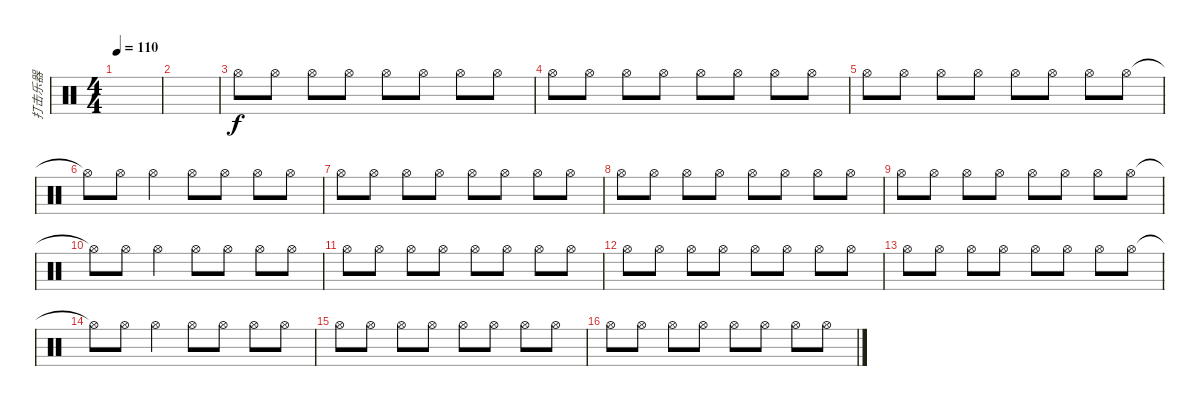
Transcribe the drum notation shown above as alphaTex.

\track ("打击乐器" "打击乐器") {instrument percussion}
\staff {score}
\articulation defaults
\ts (4 4)
\tempo 110
\clef neutral
\ks c
|
|
"Hi-Hat (open)".8 "Hi-Hat (open)".8 "Hi-Hat (open)".8 "Hi-Hat (open)".8 "Hi-Hat (open)".8 "Hi-Hat (open)".8 "Hi-Hat (open)".8 "Hi-Hat (open)".8 |
"Hi-Hat (open)".8 "Hi-Hat (open)".8 "Hi-Hat (open)".8 "Hi-Hat (open)".8 "Hi-Hat (open)".8 "Hi-Hat (open)".8 "Hi-Hat (open)".8 "Hi-Hat (open)".8 |
"Hi-Hat (open)".8 "Hi-Hat (open)".8 "Hi-Hat (open)".8 "Hi-Hat (open)".8 "Hi-Hat (open)".8 "Hi-Hat (open)".8 "Hi-Hat (open)".8 "Hi-Hat (open)".8 |
"Hi-Hat (open)"{t}.8 "Hi-Hat (open)".8 "Hi-Hat (open)".4 "Hi-Hat (open)".8 "Hi-Hat (open)".8 "Hi-Hat (open)".8 "Hi-Hat (open)".8 |
"Hi-Hat (open)".8 "Hi-Hat (open)".8 "Hi-Hat (open)".8 "Hi-Hat (open)".8 "Hi-Hat (open)".8 "Hi-Hat (open)".8 "Hi-Hat (open)".8 "Hi-Hat (open)".8 |
"Hi-Hat (open)".8 "Hi-Hat (open)".8 "Hi-Hat (open)".8 "Hi-Hat (open)".8 "Hi-Hat (open)".8 "Hi-Hat (open)".8 "Hi-Hat (open)".8 "Hi-Hat (open)".8 |
"Hi-Hat (open)".8 "Hi-Hat (open)".8 "Hi-Hat (open)".8 "Hi-Hat (open)".8 "Hi-Hat (open)".8 "Hi-Hat (open)".8 "Hi-Hat (open)".8 "Hi-Hat (open)".8 |
"Hi-Hat (open)"{t}.8 "Hi-Hat (open)".8 "Hi-Hat (open)".4 "Hi-Hat (open)".8 "Hi-Hat (open)".8 "Hi-Hat (open)".8 "Hi-Hat (open)".8 |
"Hi-Hat (open)".8 "Hi-Hat (open)".8 "Hi-Hat (open)".8 "Hi-Hat (open)".8 "Hi-Hat (open)".8 "Hi-Hat (open)".8 "Hi-Hat (open)".8 "Hi-Hat (open)".8 |
"Hi-Hat (open)".8 "Hi-Hat (open)".8 "Hi-Hat (open)".8 "Hi-Hat (open)".8 "Hi-Hat (open)".8 "Hi-Hat (open)".8 "Hi-Hat (open)".8 "Hi-Hat (open)".8 |
"Hi-Hat (open)".8 "Hi-Hat (open)".8 "Hi-Hat (open)".8 "Hi-Hat (open)".8 "Hi-Hat (open)".8 "Hi-Hat (open)".8 "Hi-Hat (open)".8 "Hi-Hat (open)".8 |
"Hi-Hat (open)"{t}.8 "Hi-Hat (open)".8 "Hi-Hat (open)".4 "Hi-Hat (open)".8 "Hi-Hat (open)".8 "Hi-Hat (open)".8 "Hi-Hat (open)".8 |
"Hi-Hat (open)".8 "Hi-Hat (open)".8 "Hi-Hat (open)".8 "Hi-Hat (open)".8 "Hi-Hat (open)".8 "Hi-Hat (open)".8 "Hi-Hat (open)".8 "Hi-Hat (open)".8 |
"Hi-Hat (open)".8 "Hi-Hat (open)".8 "Hi-Hat (open)".8 "Hi-Hat (open)".8 "Hi-Hat (open)".8 "Hi-Hat (open)".8 "Hi-Hat (open)".8 "Hi-Hat (open)".8
